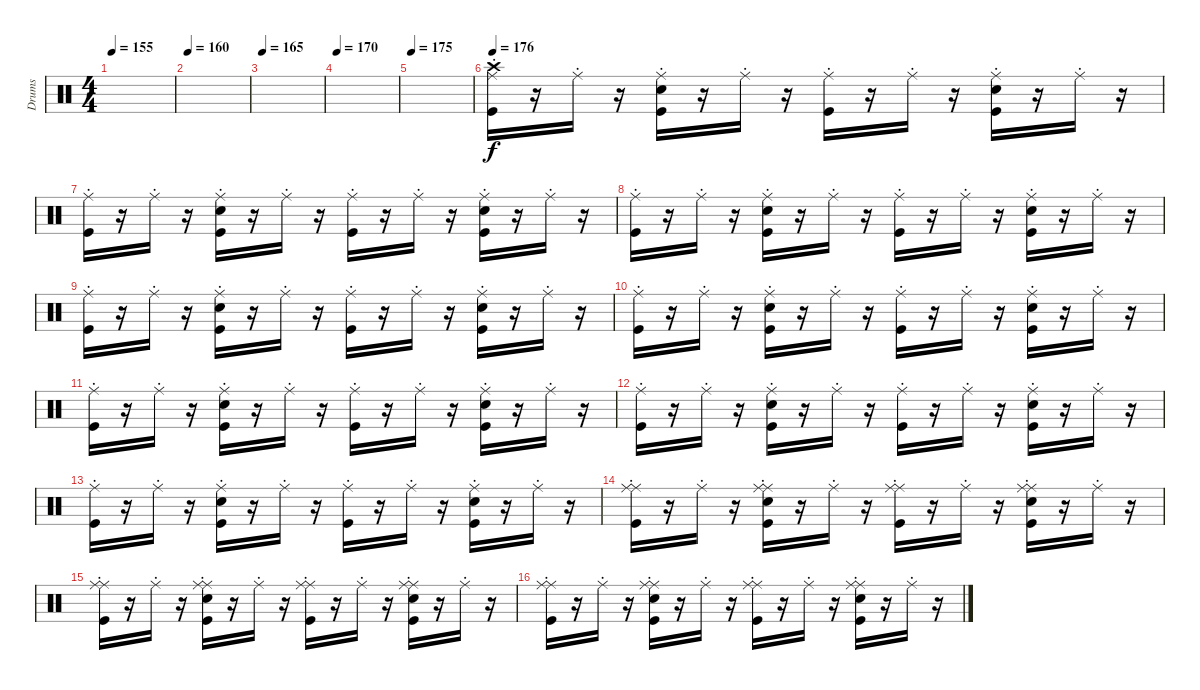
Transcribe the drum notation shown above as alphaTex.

\track ("Drums" "Drums") {instrument percussion}
\staff {score}
\articulation defaults
\ts (4 4)
\tempo 155
\clef neutral
\ks c
|
\tempo 160
|
\tempo 165
|
\tempo 170
|
\tempo 175
|
\tempo 176
("Crash high (hit)" "Kick (hit)" "Ride (choke)").16 r.16 "Ride (choke)".16 r.16 ("Kick (hit)" "Snare (hit) 2" "Ride (choke)").16 r.16 "Ride (choke)".16 r.16 ("Ride (choke)" "Kick (hit)").16 r.16 "Ride (choke)".16 r.16 ("Kick (hit)" "Snare (hit) 2" "Ride (choke)").16 r.16 "Ride (choke)".16 r.16 |
("Ride (choke)" "Kick (hit)").16 r.16 "Ride (choke)".16 r.16 ("Kick (hit)" "Snare (hit) 2" "Ride (choke)").16 r.16 "Ride (choke)".16 r.16 ("Ride (choke)" "Kick (hit)").16 r.16 "Ride (choke)".16 r.16 ("Kick (hit)" "Snare (hit) 2" "Ride (choke)").16 r.16 "Ride (choke)".16 r.16 |
("Ride (choke)" "Kick (hit)").16 r.16 "Ride (choke)".16 r.16 ("Kick (hit)" "Snare (hit) 2" "Ride (choke)").16 r.16 "Ride (choke)".16 r.16 ("Kick (hit)" "Ride (choke)").16 r.16 "Ride (choke)".16 r.16 ("Kick (hit)" "Snare (hit) 2" "Ride (choke)").16 r.16 "Ride (choke)".16 r.16 |
("Kick (hit)" "Ride (choke)").16 r.16 "Ride (choke)".16 r.16 ("Kick (hit)" "Snare (hit) 2" "Ride (choke)").16 r.16 "Ride (choke)".16 r.16 ("Kick (hit)" "Ride (choke)").16 r.16 "Ride (choke)".16 r.16 ("Kick (hit)" "Snare (hit) 2" "Ride (choke)").16 r.16 "Ride (choke)".16 r.16 |
("Kick (hit)" "Ride (choke)").16 r.16 "Ride (choke)".16 r.16 ("Kick (hit)" "Snare (hit) 2" "Ride (choke)").16 r.16 "Ride (choke)".16 r.16 ("Kick (hit)" "Ride (choke)").16 r.16 "Ride (choke)".16 r.16 ("Kick (hit)" "Snare (hit) 2" "Ride (choke)").16 r.16 "Ride (choke)".16 r.16 |
("Kick (hit)" "Ride (choke)").16 r.16 "Ride (choke)".16 r.16 ("Kick (hit)" "Snare (hit) 2" "Ride (choke)").16 r.16 "Ride (choke)".16 r.16 ("Kick (hit)" "Ride (choke)").16 r.16 "Ride (choke)".16 r.16 ("Kick (hit)" "Snare (hit) 2" "Ride (choke)").16 r.16 "Ride (choke)".16 r.16 |
("Kick (hit)" "Ride (choke)").16 r.16 "Ride (choke)".16 r.16 ("Kick (hit)" "Snare (hit) 2" "Ride (choke)").16 r.16 "Ride (choke)".16 r.16 ("Kick (hit)" "Ride (choke)").16 r.16 "Ride (choke)".16 r.16 ("Kick (hit)" "Snare (hit) 2" "Ride (choke)").16 r.16 "Ride (choke)".16 r.16 |
("Kick (hit)" "Ride (choke)").16 r.16 "Ride (choke)".16 r.16 ("Kick (hit)" "Snare (hit) 2" "Ride (choke)").16 r.16 "Ride (choke)".16 r.16 ("Kick (hit)" "Ride (choke)").16 r.16 "Ride (choke)".16 r.16 ("Kick (hit)" "Snare (hit) 2" "Ride (choke)").16 r.16 "Ride (choke)".16 r.16 |
("Ride (middle)" "Kick (hit)" "Ride (choke)").16 r.16 "Ride (choke)".16 r.16 ("Ride (middle)" "Kick (hit)" "Snare (hit) 2" "Ride (choke)").16 r.16 "Ride (choke)".16 r.16 ("Ride (middle)" "Kick (hit)" "Ride (choke)").16 r.16 "Ride (choke)".16 r.16 ("Ride (middle)" "Kick (hit)" "Snare (hit) 2" "Ride (choke)").16 r.16 "Ride (choke)".16 r.16 |
("Ride (middle)" "Kick (hit)" "Ride (choke)").16 r.16 "Ride (choke)".16 r.16 ("Ride (middle)" "Kick (hit)" "Snare (hit) 2" "Ride (choke)").16 r.16 "Ride (choke)".16 r.16 ("Ride (middle)" "Kick (hit)" "Ride (choke)").16 r.16 "Ride (choke)".16 r.16 ("Kick (hit)" "Snare (hit) 2" "Ride (choke)" "Ride (middle)").16 r.16 "Ride (choke)".16 r.16 |
("Ride (middle)" "Kick (hit)" "Ride (choke)").16 r.16 "Ride (choke)".16 r.16 ("Ride (middle)" "Kick (hit)" "Snare (hit) 2" "Ride (choke)").16 r.16 "Ride (choke)".16 r.16 ("Ride (middle)" "Kick (hit)" "Ride (choke)").16 r.16 "Ride (choke)".16 r.16 ("Ride (middle)" "Kick (hit)" "Snare (hit) 2" "Ride (choke)").16 r.16 "Ride (choke)".16 r.16
